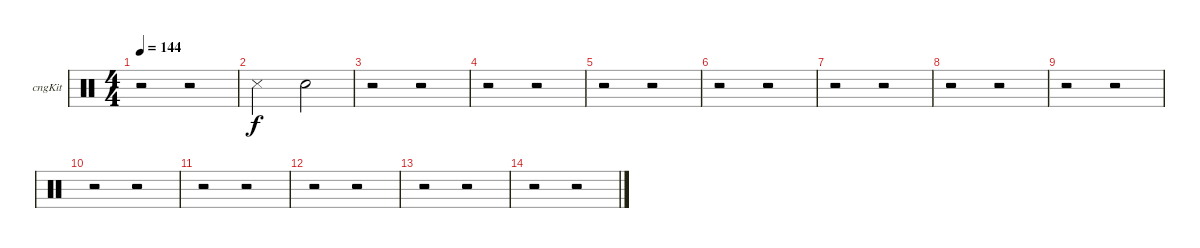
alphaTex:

\bracketExtendMode groupsimilarinstruments
\firstSystemTrackNameOrientation horizontal
\otherSystemsTrackNameOrientation horizontal
\track ("Congas" "cngKit") {instrument percussion}
\staff {score}
\articulation defaults
\ts (4 4)
\tempo 144
\clef neutral
\ks c
r.2{dy f} r.2 |
"Snare (side stick) 3".2 "Snare (hit) 2".2 |
r.2 r.2 |
r.2 r.2 |
r.2 r.2 |
r.2 r.2 |
r.2 r.2 |
r.2 r.2 |
r.2 r.2 |
r.2 r.2 |
r.2 r.2 |
r.2 r.2 |
r.2 r.2 |
r.2 r.2
